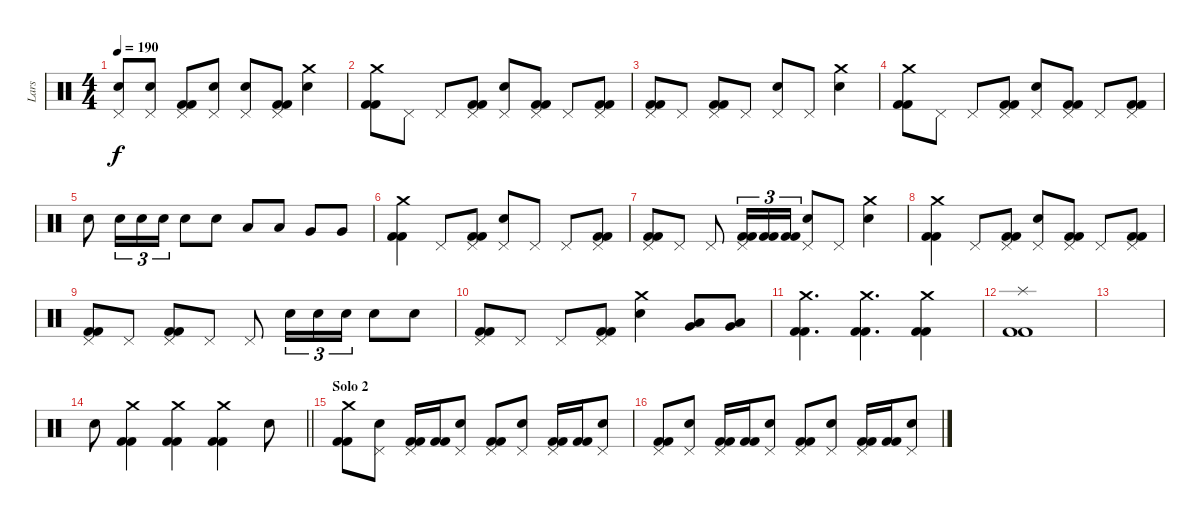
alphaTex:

\track ("Lars" "Lars") {instrument percussion}
\staff {score}
\articulation defaults
\ts (4 4)
\tempo 190
\clef neutral
\ks c
("Pedal Hi-Hat (hit)" "Electric Snare (hit)").8{dy f} ("Pedal Hi-Hat (hit)" "Electric Snare (hit)").8 ("Pedal Hi-Hat (hit)" "Kick (hit) 2" "Kick (hit) 2").8 ("Pedal Hi-Hat (hit)" "Electric Snare (hit)").8 ("Pedal Hi-Hat (hit)" "Electric Snare (hit)").8 ("Pedal Hi-Hat (hit)" "Kick (hit) 2" "Kick (hit) 2").8 ("Crash medium (hit)" "Electric Snare (hit)").4 |
("Crash medium (hit)" "Kick (hit) 2" "Kick (hit) 2").8 "Pedal Hi-Hat (hit)".8 "Pedal Hi-Hat (hit)".8 ("Pedal Hi-Hat (hit)" "Kick (hit) 2" "Kick (hit) 2").8 ("Pedal Hi-Hat (hit)" "Electric Snare (hit)").8 ("Pedal Hi-Hat (hit)" "Kick (hit) 2" "Kick (hit) 2").8 "Pedal Hi-Hat (hit)".8 ("Pedal Hi-Hat (hit)" "Kick (hit) 2" "Kick (hit) 2").8 |
("Pedal Hi-Hat (hit)" "Kick (hit) 2" "Kick (hit) 2").8 "Pedal Hi-Hat (hit)".8 ("Pedal Hi-Hat (hit)" "Kick (hit) 2" "Kick (hit) 2").8 "Pedal Hi-Hat (hit)".8 ("Pedal Hi-Hat (hit)" "Electric Snare (hit)").8 "Pedal Hi-Hat (hit)".8 ("Crash medium (hit)" "Electric Snare (hit)").4 |
("Crash medium (hit)" "Kick (hit) 2" "Kick (hit) 2").8 "Pedal Hi-Hat (hit)".8 "Pedal Hi-Hat (hit)".8 ("Pedal Hi-Hat (hit)" "Kick (hit) 2" "Kick (hit) 2").8 ("Pedal Hi-Hat (hit)" "Electric Snare (hit)").8 ("Pedal Hi-Hat (hit)" "Kick (hit) 2" "Kick (hit) 2").8 "Pedal Hi-Hat (hit)".8 ("Pedal Hi-Hat (hit)" "Kick (hit) 2" "Kick (hit) 2").8 |
"Electric Snare (hit)".8 "Electric Snare (hit)".16{tu (3 2)} "Electric Snare (hit)".16{tu (3 2)} "Electric Snare (hit)".16{tu (3 2)} "Electric Snare (hit)".8 "Electric Snare (hit)".8 "Low Tom (hit)".8 "Low Tom (hit)".8 "Very Low Tom (hit)".8 "Very Low Tom (hit)".8 |
("Crash medium (hit)" "Kick (hit) 2" "Kick (hit) 2").4 "Pedal Hi-Hat (hit)".8 ("Pedal Hi-Hat (hit)" "Kick (hit) 2" "Kick (hit) 2").8 ("Pedal Hi-Hat (hit)" "Electric Snare (hit)").8 "Pedal Hi-Hat (hit)".8 "Pedal Hi-Hat (hit)".8 ("Pedal Hi-Hat (hit)" "Kick (hit) 2" "Kick (hit) 2").8 |
("Pedal Hi-Hat (hit)" "Kick (hit) 2" "Kick (hit) 2").8 "Pedal Hi-Hat (hit)".8 "Pedal Hi-Hat (hit)".8 ("Pedal Hi-Hat (hit)" "Kick (hit) 2" "Kick (hit) 2").16{tu (3 2)} ("Kick (hit) 2" "Kick (hit) 2").16{tu (3 2)} ("Kick (hit) 2" "Kick (hit) 2").16{tu (3 2)} ("Pedal Hi-Hat (hit)" "Electric Snare (hit)").8 "Pedal Hi-Hat (hit)".8 ("Crash medium (hit)" "Electric Snare (hit)").4 |
("Crash medium (hit)" "Kick (hit) 2" "Kick (hit) 2").4 "Pedal Hi-Hat (hit)".8 ("Pedal Hi-Hat (hit)" "Kick (hit) 2" "Kick (hit) 2").8 ("Pedal Hi-Hat (hit)" "Electric Snare (hit)").8 ("Pedal Hi-Hat (hit)" "Kick (hit) 2" "Kick (hit) 2").8 "Pedal Hi-Hat (hit)".8 ("Pedal Hi-Hat (hit)" "Kick (hit) 2" "Kick (hit) 2").8 |
("Pedal Hi-Hat (hit)" "Kick (hit) 2" "Kick (hit) 2").8 "Pedal Hi-Hat (hit)".8 ("Pedal Hi-Hat (hit)" "Kick (hit) 2" "Kick (hit) 2").8 "Pedal Hi-Hat (hit)".8 "Pedal Hi-Hat (hit)".8 "Electric Snare (hit)".16{tu (3 2)} "Electric Snare (hit)".16{tu (3 2)} "Electric Snare (hit)".16{tu (3 2)} "Electric Snare (hit)".8 "Electric Snare (hit)".8 |
("Pedal Hi-Hat (hit)" "Kick (hit) 2" "Kick (hit) 2").8 "Pedal Hi-Hat (hit)".8 "Pedal Hi-Hat (hit)".8 ("Pedal Hi-Hat (hit)" "Kick (hit) 2" "Kick (hit) 2").8 ("Crash medium (hit)" "Electric Snare (hit)").4 ("Very Low Tom (hit)" "Low Tom (hit)").8 ("Very Low Tom (hit)" "Low Tom (hit)").8 |
("Crash medium (hit)" "Kick (hit) 2" "Kick (hit) 2").4{d} ("Crash medium (hit)" "Kick (hit) 2" "Kick (hit) 2").4{d} ("Crash medium (hit)" "Kick (hit) 2" "Kick (hit) 2").4 |
("Splash (hit)" "Kick (hit) 2" "Kick (hit) 2").1 |
|
\barLineRight lightlight "Electric Snare (hit)".8
("Crash medium (hit)" "Kick (hit) 2" "Kick (hit) 2").4 ("Crash medium (hit)" "Kick (hit) 2" "Kick (hit) 2").4 ("Crash medium (hit)" "Kick (hit) 2" "Kick (hit) 2").4 "Electric Snare (hit)".8 |
\section ("" "Solo 2")
("Crash medium (hit)" "Kick (hit) 2" "Kick (hit) 2").8 ("Pedal Hi-Hat (hit)" "Electric Snare (hit)").8 ("Pedal Hi-Hat (hit)" "Kick (hit) 2" "Kick (hit) 2").16 ("Kick (hit) 2" "Kick (hit) 2").16 ("Pedal Hi-Hat (hit)" "Electric Snare (hit)").8 ("Pedal Hi-Hat (hit)" "Kick (hit) 2" "Kick (hit) 2").8 ("Pedal Hi-Hat (hit)" "Electric Snare (hit)").8 ("Pedal Hi-Hat (hit)" "Kick (hit) 2" "Kick (hit) 2").16 ("Kick (hit) 2" "Kick (hit) 2").16 ("Pedal Hi-Hat (hit)" "Electric Snare (hit)").8 |
("Pedal Hi-Hat (hit)" "Kick (hit) 2" "Kick (hit) 2").8 ("Pedal Hi-Hat (hit)" "Electric Snare (hit)").8 ("Pedal Hi-Hat (hit)" "Kick (hit) 2" "Kick (hit) 2").16 ("Kick (hit) 2" "Kick (hit) 2").16 ("Pedal Hi-Hat (hit)" "Electric Snare (hit)").8 ("Pedal Hi-Hat (hit)" "Kick (hit) 2" "Kick (hit) 2").8 ("Pedal Hi-Hat (hit)" "Electric Snare (hit)").8 ("Pedal Hi-Hat (hit)" "Kick (hit) 2" "Kick (hit) 2").16 ("Kick (hit) 2" "Kick (hit) 2").16 ("Pedal Hi-Hat (hit)" "Electric Snare (hit)").8
